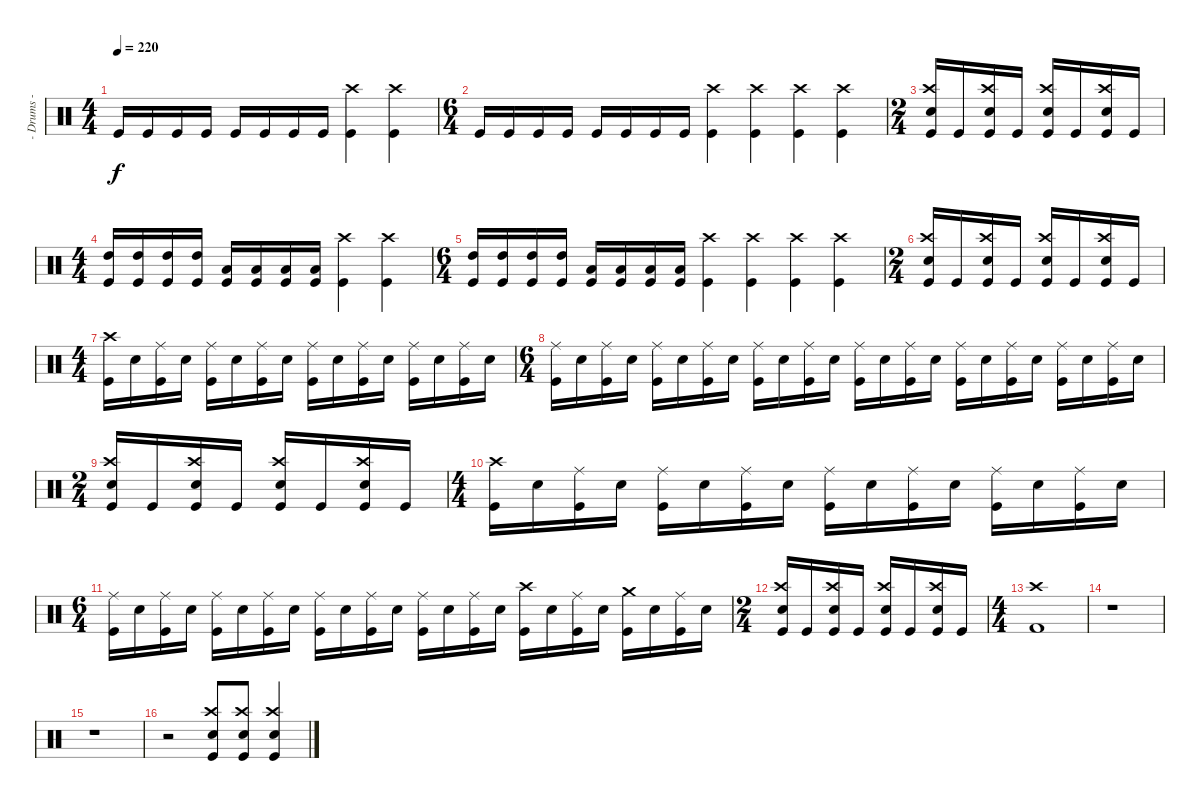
\track ("- Drums -" "- Drums -") {instrument percussion}
\staff {score}
\articulation defaults
\ts (4 4)
\tempo 220
\clef neutral
\ks c "Kick (hit)".16{dy f} "Kick (hit)".16 "Kick (hit)".16 "Kick (hit)".16 "Kick (hit)".16 "Kick (hit)".16 "Kick (hit)".16 "Kick (hit)".16
("Crash high (hit)" "Kick (hit)").4 ("Crash high (hit)" "Kick (hit)").4 |
\ts (6 4)
"Kick (hit)".16 "Kick (hit)".16 "Kick (hit)".16 "Kick (hit)".16 "Kick (hit)".16 "Kick (hit)".16 "Kick (hit)".16 "Kick (hit)".16 ("Crash high (hit)" "Kick (hit)").4 ("Crash high (hit)" "Kick (hit)").4 ("Crash high (hit)" "Kick (hit)").4 ("Crash high (hit)" "Kick (hit)").4 |
\ts (2 4)
("Crash high (hit)" "Electric Snare (hit)" "Kick (hit)").16 "Kick (hit)".16 ("Crash high (hit)" "Electric Snare (hit)" "Kick (hit)").16 "Kick (hit)".16 ("Crash high (hit)" "Electric Snare (hit)" "Kick (hit)").16 "Kick (hit)".16 ("Crash high (hit)" "Electric Snare (hit)" "Kick (hit)").16 "Kick (hit)".16 |
\ts (4 4)
("High Tom (hit)" "Kick (hit)").16 ("High Tom (hit)" "Kick (hit)").16 ("High Tom (hit)" "Kick (hit)").16 ("High Tom (hit)" "Kick (hit)").16 ("Low Tom (hit)" "Kick (hit)").16 ("Low Tom (hit)" "Kick (hit)").16 ("Low Tom (hit)" "Kick (hit)").16 ("Low Tom (hit)" "Kick (hit)").16 ("Crash high (hit)" "Kick (hit)").4 ("Crash high (hit)" "Kick (hit)").4 |
\ts (6 4)
("High Tom (hit)" "Kick (hit)").16 ("High Tom (hit)" "Kick (hit)").16 ("High Tom (hit)" "Kick (hit)").16 ("High Tom (hit)" "Kick (hit)").16 ("Low Tom (hit)" "Kick (hit)").16 ("Low Tom (hit)" "Kick (hit)").16 ("Low Tom (hit)" "Kick (hit)").16 ("Low Tom (hit)" "Kick (hit)").16 ("Crash high (hit)" "Kick (hit)").4 ("Crash high (hit)" "Kick (hit)").4 ("Crash high (hit)" "Kick (hit)").4 ("Crash high (hit)" "Kick (hit)").4 |
\ts (2 4)
("Crash high (hit)" "Electric Snare (hit)" "Kick (hit)").16 "Kick (hit)".16 ("Crash high (hit)" "Electric Snare (hit)" "Kick (hit)").16 "Kick (hit)".16 ("Crash high (hit)" "Electric Snare (hit)" "Kick (hit)").16 "Kick (hit)".16 ("Crash high (hit)" "Electric Snare (hit)" "Kick (hit)").16 "Kick (hit)".16 |
\ts (4 4)
("Crash high (hit)" "Kick (hit)").16 "Electric Snare (hit)".16 ("Ride (middle)" "Kick (hit)").16 "Electric Snare (hit)".16 ("Ride (middle)" "Kick (hit)").16 "Electric Snare (hit)".16 ("Ride (middle)" "Kick (hit)").16 "Electric Snare (hit)".16 ("Ride (middle)" "Kick (hit)").16 "Electric Snare (hit)".16 ("Ride (middle)" "Kick (hit)").16 "Electric Snare (hit)".16 ("Ride (middle)" "Kick (hit)").16 "Electric Snare (hit)".16 ("Ride (middle)" "Kick (hit)").16 "Electric Snare (hit)".16 |
\ts (6 4)
("Ride (middle)" "Kick (hit)").16 "Electric Snare (hit)".16 ("Ride (middle)" "Kick (hit)").16 "Electric Snare (hit)".16 ("Ride (middle)" "Kick (hit)").16 "Electric Snare (hit)".16 ("Ride (middle)" "Kick (hit)").16 "Electric Snare (hit)".16 ("Ride (middle)" "Kick (hit)").16 "Electric Snare (hit)".16 ("Ride (middle)" "Kick (hit)").16 "Electric Snare (hit)".16 ("Ride (middle)" "Kick (hit)").16 "Electric Snare (hit)".16 ("Ride (middle)" "Kick (hit)").16 "Electric Snare (hit)".16 ("Ride (middle)" "Kick (hit)").16 "Electric Snare (hit)".16 ("Ride (middle)" "Kick (hit)").16 "Electric Snare (hit)".16 ("Ride (middle)" "Kick (hit)").16 "Electric Snare (hit)".16 ("Ride (middle)" "Kick (hit)").16 "Electric Snare (hit)".16 |
\ts (2 4)
("Crash high (hit)" "Electric Snare (hit)" "Kick (hit)").16 "Kick (hit)".16 ("Crash high (hit)" "Electric Snare (hit)" "Kick (hit)").16 "Kick (hit)".16 ("Crash high (hit)" "Electric Snare (hit)" "Kick (hit)").16 "Kick (hit)".16 ("Crash high (hit)" "Electric Snare (hit)" "Kick (hit)").16 "Kick (hit)".16 |
\ts (4 4)
("Crash high (hit)" "Kick (hit)").16 "Electric Snare (hit)".16 ("Ride (middle)" "Kick (hit)").16 "Electric Snare (hit)".16 ("Ride (middle)" "Kick (hit)").16 "Electric Snare (hit)".16 ("Ride (middle)" "Kick (hit)").16 "Electric Snare (hit)".16 ("Ride (middle)" "Kick (hit)").16 "Electric Snare (hit)".16 ("Ride (middle)" "Kick (hit)").16 "Electric Snare (hit)".16 ("Ride (middle)" "Kick (hit)").16 "Electric Snare (hit)".16 ("Ride (middle)" "Kick (hit)").16 "Electric Snare (hit)".16 |
\ts (6 4)
("Ride (middle)" "Kick (hit)").16 "Electric Snare (hit)".16 ("Ride (middle)" "Kick (hit)").16 "Electric Snare (hit)".16 ("Ride (middle)" "Kick (hit)").16 "Electric Snare (hit)".16 ("Ride (middle)" "Kick (hit)").16 "Electric Snare (hit)".16 ("Ride (middle)" "Kick (hit)").16 "Electric Snare (hit)".16 ("Ride (middle)" "Kick (hit)").16 "Electric Snare (hit)".16 ("Ride (middle)" "Kick (hit)").16 "Electric Snare (hit)".16 ("Ride (middle)" "Kick (hit)").16 "Electric Snare (hit)".16 ("Crash high (hit)" "Kick (hit)").16 "Electric Snare (hit)".16 ("Ride (middle)" "Kick (hit)").16 "Electric Snare (hit)".16 ("Crash medium (hit)" "Kick (hit)").16 "Electric Snare (hit)".16 ("Ride (middle)" "Kick (hit)").16 "Electric Snare (hit)".16 |
\ts (2 4)
("Crash high (hit)" "Electric Snare (hit)" "Kick (hit)").16 "Kick (hit)".16 ("Crash high (hit)" "Electric Snare (hit)" "Kick (hit)").16 "Kick (hit)".16 ("Crash high (hit)" "Electric Snare (hit)" "Kick (hit)").16 "Kick (hit)".16 ("Crash high (hit)" "Electric Snare (hit)" "Kick (hit)").16 "Kick (hit)".16 |
\ts (4 4)
("Crash high (hit)" "Kick (hit) 2").1 |
r.1 |
r.1 |
r.2 ("Crash high (hit)" "Electric Snare (hit)" "Kick (hit)").8 ("Crash high (hit)" "Electric Snare (hit)" "Kick (hit)").8 ("Crash high (hit)" "Electric Snare (hit)" "Kick (hit)").4
